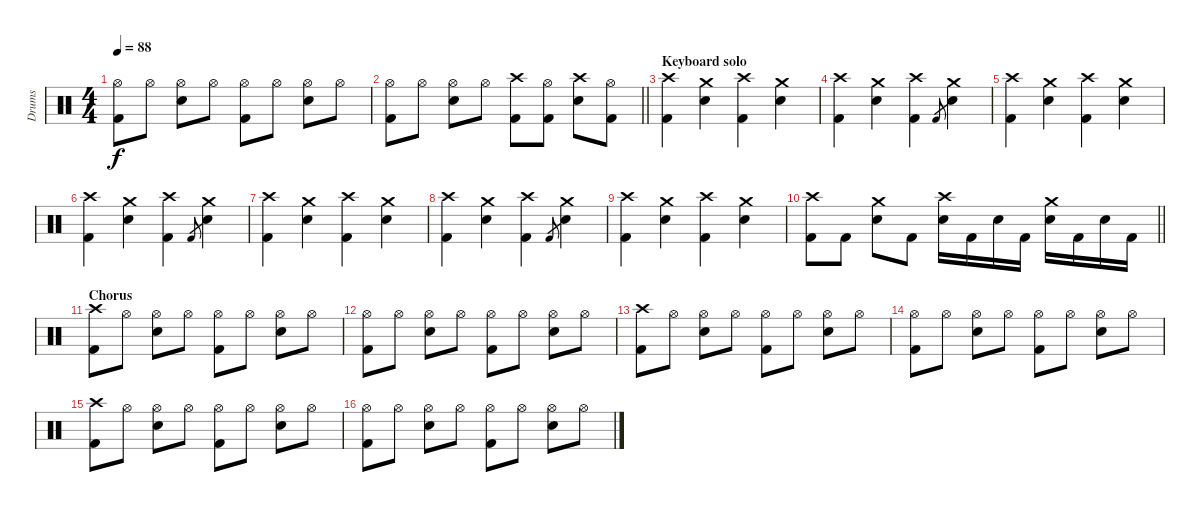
\track ("Drums" "Drums") {instrument percussion}
\staff {score}
\articulation defaults
\ts (4 4)
\tempo 88
\clef neutral
\ks c
("Hi-Hat (open)" "Kick (hit) 2").8{dy f} "Hi-Hat (open)".8 ("Hi-Hat (open)" "Snare (hit) 2").8 "Hi-Hat (open)".8 ("Hi-Hat (open)" "Kick (hit) 2").8 "Hi-Hat (open)".8 ("Hi-Hat (open)" "Snare (hit) 2").8 "Hi-Hat (open)".8 |
\barLineRight lightlight
("Hi-Hat (open)" "Kick (hit) 2").8 "Hi-Hat (open)".8 ("Hi-Hat (open)" "Snare (hit) 2").8 "Hi-Hat (open)".8 ("Crash high (hit)" "Kick (hit) 2").8 ("Hi-Hat (open)" "Kick (hit) 2").8 ("Crash high (hit)" "Snare (hit) 2").8 ("Hi-Hat (open)" "Kick (hit) 2").8 |
\section ("" "Keyboard solo")
("Crash high (hit)" "Kick (hit) 2").4 ("Crash medium (hit)" "Snare (hit) 2").4 ("Crash high (hit)" "Kick (hit) 2").4 ("Crash medium (hit)" "Snare (hit) 2").4 |
("Crash high (hit)" "Kick (hit) 2").4 ("Crash medium (hit)" "Snare (hit) 2").4 ("Crash high (hit)" "Kick (hit) 2").4 "Kick (hit) 2".8{gr} ("Crash medium (hit)" "Snare (hit) 2").4 |
("Crash high (hit)" "Kick (hit) 2").4 ("Crash medium (hit)" "Snare (hit) 2").4 ("Crash high (hit)" "Kick (hit) 2").4 ("Crash medium (hit)" "Snare (hit) 2").4 |
("Crash high (hit)" "Kick (hit) 2").4 ("Crash medium (hit)" "Snare (hit) 2").4 ("Crash high (hit)" "Kick (hit) 2").4 "Kick (hit) 2".8{gr} ("Crash medium (hit)" "Snare (hit) 2").4 |
("Crash high (hit)" "Kick (hit) 2").4 ("Crash medium (hit)" "Snare (hit) 2").4 ("Crash high (hit)" "Kick (hit) 2").4 ("Crash medium (hit)" "Snare (hit) 2").4 |
("Crash high (hit)" "Kick (hit) 2").4 ("Crash medium (hit)" "Snare (hit) 2").4 ("Crash high (hit)" "Kick (hit) 2").4 "Kick (hit) 2".8{gr} ("Crash medium (hit)" "Snare (hit) 2").4 |
("Crash high (hit)" "Kick (hit) 2").4 ("Crash medium (hit)" "Snare (hit) 2").4 ("Crash high (hit)" "Kick (hit) 2").4 ("Crash medium (hit)" "Snare (hit) 2").4 |
\barLineRight lightlight
("Crash high (hit)" "Kick (hit) 2").8 "Kick (hit) 2".8 ("Crash medium (hit)" "Snare (hit) 2").8 "Kick (hit) 2".8 ("Crash high (hit)" "Snare (hit) 2").16 "Kick (hit) 2".16 "Snare (hit) 2".16 "Kick (hit) 2".16 ("Crash medium (hit)" "Snare (hit) 2").16 "Kick (hit) 2".16 "Snare (hit) 2".16 "Kick (hit) 2".16 |
\section ("" "Chorus")
("Crash high (hit)" "Kick (hit) 2").8 "Hi-Hat (open)".8 ("Hi-Hat (open)" "Snare (hit) 2").8 "Hi-Hat (open)".8 ("Hi-Hat (open)" "Kick (hit) 2").8 "Hi-Hat (open)".8 ("Hi-Hat (open)" "Snare (hit) 2").8 "Hi-Hat (open)".8 |
("Hi-Hat (open)" "Kick (hit) 2").8 "Hi-Hat (open)".8 ("Hi-Hat (open)" "Snare (hit) 2").8 "Hi-Hat (open)".8 ("Hi-Hat (open)" "Kick (hit) 2").8 "Hi-Hat (open)".8 ("Hi-Hat (open)" "Snare (hit) 2").8 "Hi-Hat (open)".8 |
("Crash high (hit)" "Kick (hit) 2").8 "Hi-Hat (open)".8 ("Hi-Hat (open)" "Snare (hit) 2").8 "Hi-Hat (open)".8 ("Hi-Hat (open)" "Kick (hit) 2").8 "Hi-Hat (open)".8 ("Hi-Hat (open)" "Snare (hit) 2").8 "Hi-Hat (open)".8 |
("Hi-Hat (open)" "Kick (hit) 2").8 "Hi-Hat (open)".8 ("Hi-Hat (open)" "Snare (hit) 2").8 "Hi-Hat (open)".8 ("Hi-Hat (open)" "Kick (hit) 2").8 "Hi-Hat (open)".8 ("Hi-Hat (open)" "Snare (hit) 2").8 "Hi-Hat (open)".8 |
("Crash high (hit)" "Kick (hit) 2").8 "Hi-Hat (open)".8 ("Hi-Hat (open)" "Snare (hit) 2").8 "Hi-Hat (open)".8 ("Hi-Hat (open)" "Kick (hit) 2").8 "Hi-Hat (open)".8 ("Hi-Hat (open)" "Snare (hit) 2").8 "Hi-Hat (open)".8 |
("Hi-Hat (open)" "Kick (hit) 2").8 "Hi-Hat (open)".8 ("Hi-Hat (open)" "Snare (hit) 2").8 "Hi-Hat (open)".8 ("Hi-Hat (open)" "Kick (hit) 2").8 "Hi-Hat (open)".8 ("Hi-Hat (open)" "Snare (hit) 2").8 "Hi-Hat (open)".8
